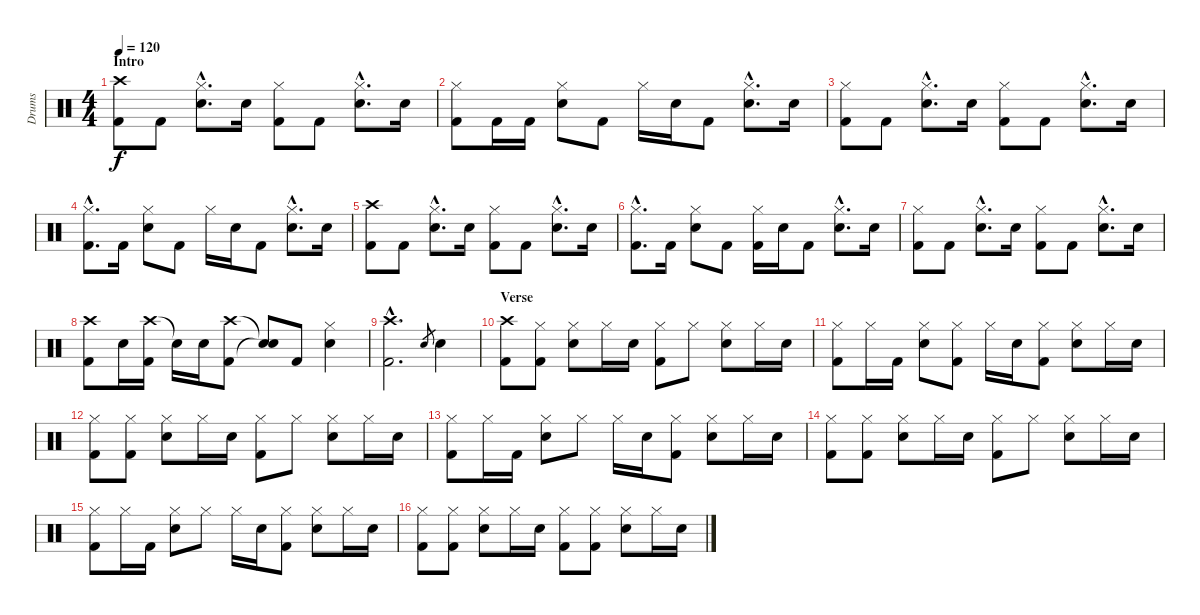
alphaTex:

\track ("Drums" "Drums") {instrument percussion}
\staff {score}
\articulation defaults
\ts (4 4)
\section ("" "Intro")
\tempo 120
\clef neutral
\ks c
("Crash high (hit)" "Kick (hit) 2").8{dy f} "Kick (hit) 2".8 ("Hi-Hat (closed)"{hac} "Snare (hit) 2"{hac}).8{d} "Snare (hit) 2".16 ("Hi-Hat (closed)" "Kick (hit) 2").8 "Kick (hit) 2".8 ("Hi-Hat (closed)"{hac} "Snare (hit) 2"{hac}).8{d} "Snare (hit) 2".16 |
("Hi-Hat (closed)" "Kick (hit) 2").8 "Kick (hit) 2".16 "Kick (hit) 2".16 ("Hi-Hat (closed)" "Snare (hit) 2").8 "Kick (hit) 2".8 "Hi-Hat (closed)".16 "Snare (hit) 2".16 "Kick (hit) 2".8 ("Hi-Hat (closed)"{hac} "Snare (hit) 2"{hac}).8{d} "Snare (hit) 2".16 |
("Hi-Hat (closed)" "Kick (hit) 2").8 "Kick (hit) 2".8 ("Hi-Hat (closed)"{hac} "Snare (hit) 2"{hac}).8{d} "Snare (hit) 2".16 ("Hi-Hat (closed)" "Kick (hit) 2").8 "Kick (hit) 2".8 ("Hi-Hat (closed)"{hac} "Snare (hit) 2"{hac}).8{d} "Snare (hit) 2".16 |
("Hi-Hat (closed)"{hac} "Kick (hit) 2"{hac}).8{d} "Kick (hit) 2".16 ("Hi-Hat (closed)" "Snare (hit) 2").8 "Kick (hit) 2".8 "Hi-Hat (closed)".16 "Snare (hit) 2".16 "Kick (hit) 2".8 ("Hi-Hat (closed)"{hac} "Snare (hit) 2"{hac}).8{d} "Snare (hit) 2".16 |
("Crash high (hit)" "Kick (hit) 2").8 "Kick (hit) 2".8 ("Hi-Hat (closed)"{hac} "Snare (hit) 2"{hac}).8{d} "Snare (hit) 2".16 ("Hi-Hat (closed)" "Kick (hit) 2").8 "Kick (hit) 2".8 ("Hi-Hat (closed)"{hac} "Snare (hit) 2"{hac}).8{d} "Snare (hit) 2".16 |
("Hi-Hat (closed)"{hac} "Kick (hit) 2"{hac}).8{d} "Kick (hit) 2".16 ("Hi-Hat (closed)" "Snare (hit) 2").8 "Kick (hit) 2".8 ("Hi-Hat (closed)" "Kick (hit) 2").16 "Snare (hit) 2".16 "Kick (hit) 2".8 ("Hi-Hat (closed)"{hac} "Snare (hit) 2"{hac}).8{d} "Snare (hit) 2".16 |
("Hi-Hat (closed)" "Kick (hit) 2").8 "Kick (hit) 2".8 ("Hi-Hat (closed)"{hac} "Snare (hit) 2"{hac}).8{d} "Snare (hit) 2".16 ("Hi-Hat (closed)" "Kick (hit) 2").8 "Kick (hit) 2".8 ("Hi-Hat (closed)"{hac} "Snare (hit) 2"{hac}).8{d} "Snare (hit) 2".16 |
("Crash high (hit)" "Kick (hit) 2").8 "Snare (hit) 2".16 ("Crash high (hit)" "Kick (hit) 2").16 "Snare (hit)"{t}.16 "Snare (hit) 2".16 ("Crash high (hit)" "Kick (hit) 2").8 ("Snare (hit)"{t} "Snare (hit)"{t}).8 "Kick (hit) 2".8 ("Hi-Hat (closed)" "Snare (hit) 2").4 |
("Crash high (hit)"{hac} "Kick (hit) 2"{hac}).2{d} "Snare (hit) 2".8{gr} "Snare (hit) 2".4 |
\section ("" "Verse")
("Crash high (hit)" "Kick (hit) 2").8 ("Hi-Hat (closed)" "Kick (hit) 2").8 ("Hi-Hat (closed)" "Snare (hit) 2").8 "Hi-Hat (closed)".16 "Snare (hit) 2".16 ("Hi-Hat (closed)" "Kick (hit) 2").8 "Hi-Hat (closed)".8 ("Hi-Hat (closed)" "Snare (hit) 2").8 "Hi-Hat (closed)".16 "Snare (hit) 2".16 |
("Hi-Hat (closed)" "Kick (hit) 2").8 "Hi-Hat (closed)".16 "Kick (hit) 2".16 ("Hi-Hat (closed)" "Snare (hit) 2").8 ("Hi-Hat (closed)" "Kick (hit) 2").8 "Hi-Hat (closed)".16 "Snare (hit) 2".16 ("Hi-Hat (closed)" "Kick (hit) 2").8 ("Hi-Hat (closed)" "Snare (hit) 2").8 "Hi-Hat (closed)".16 "Snare (hit) 2".16 |
("Hi-Hat (closed)" "Kick (hit) 2").8 ("Hi-Hat (closed)" "Kick (hit) 2").8 ("Hi-Hat (closed)" "Snare (hit) 2").8 "Hi-Hat (closed)".16 "Snare (hit) 2".16 ("Hi-Hat (closed)" "Kick (hit) 2").8 "Hi-Hat (closed)".8 ("Hi-Hat (closed)" "Snare (hit) 2").8 "Hi-Hat (closed)".16 "Snare (hit) 2".16 |
("Hi-Hat (closed)" "Kick (hit) 2").8 "Hi-Hat (closed)".16 "Kick (hit) 2".16 ("Hi-Hat (closed)" "Snare (hit) 2").8 "Hi-Hat (closed)".8 "Hi-Hat (closed)".16 "Snare (hit) 2".16 ("Hi-Hat (closed)" "Kick (hit) 2").8 ("Hi-Hat (closed)" "Snare (hit) 2").8 "Hi-Hat (closed)".16 "Snare (hit) 2".16 |
("Hi-Hat (closed)" "Kick (hit) 2").8 ("Hi-Hat (closed)" "Kick (hit) 2").8 ("Hi-Hat (closed)" "Snare (hit) 2").8 "Hi-Hat (closed)".16 "Snare (hit) 2".16 ("Hi-Hat (closed)" "Kick (hit) 2").8 "Hi-Hat (closed)".8 ("Hi-Hat (closed)" "Snare (hit) 2").8 "Hi-Hat (closed)".16 "Snare (hit) 2".16 |
("Hi-Hat (closed)" "Kick (hit) 2").8 "Hi-Hat (closed)".16 "Kick (hit) 2".16 ("Hi-Hat (closed)" "Snare (hit) 2").8 "Hi-Hat (closed)".8 "Hi-Hat (closed)".16 "Snare (hit) 2".16 ("Hi-Hat (closed)" "Kick (hit) 2").8 ("Hi-Hat (closed)" "Snare (hit) 2").8 "Hi-Hat (closed)".16 "Snare (hit) 2".16 |
("Hi-Hat (closed)" "Kick (hit) 2").8 ("Hi-Hat (closed)" "Kick (hit) 2").8 ("Hi-Hat (closed)" "Snare (hit) 2").8 "Hi-Hat (closed)".16 "Snare (hit) 2".16 ("Hi-Hat (closed)" "Kick (hit) 2").8 ("Hi-Hat (closed)" "Kick (hit) 2").8 ("Hi-Hat (closed)" "Snare (hit) 2").8 "Hi-Hat (closed)".16 "Snare (hit) 2".16
